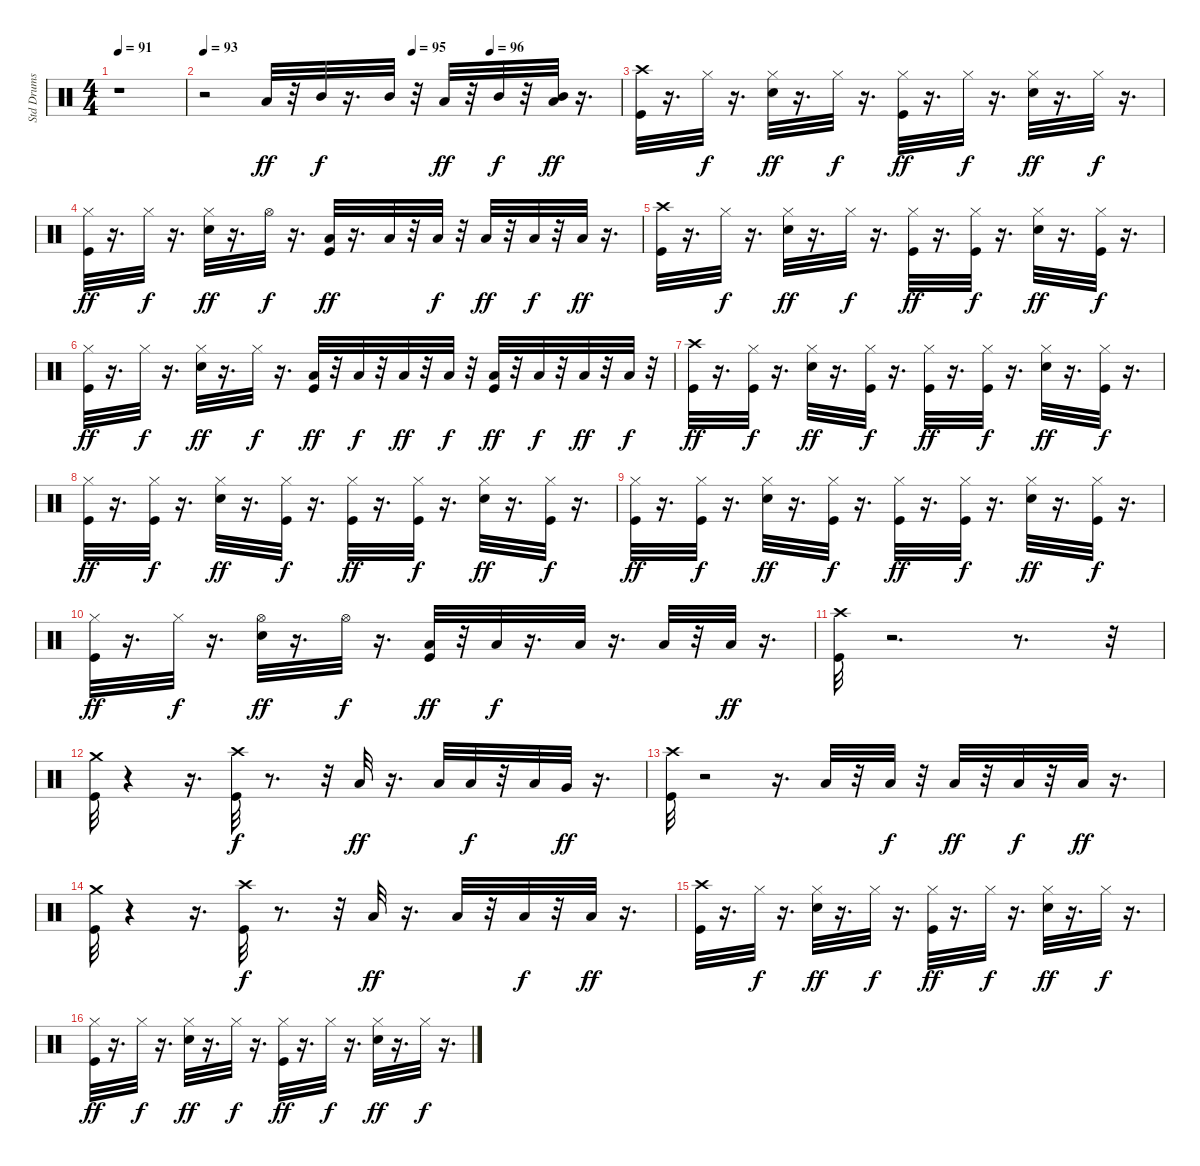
\track ("Std Drums" "Std Drums") {instrument percussion}
\staff {score}
\articulation defaults
\ts (4 4)
\tempo 91
\clef neutral
\ks c
r.1{dy ff} |
\tempo 93
\tempo (95 0.5)
\tempo (96 0.6875)
r.2 "Low Tom (hit)".32{volume 14} r.32 "Mid Tom (hit)".32{dy f} r.16{d} "Mid Tom (hit)".32 r.32 "Low Tom (hit)".32{dy ff} r.32 "Mid Tom (hit)".32{dy f} r.32 ("Mid Tom (hit)" "Low Tom (hit)").32{dy ff} r.16{d} |
("Kick (hit)" "Crash high (hit)").32 r.16{d} "Hi-Hat (closed)".32{dy f} r.16{d} ("Hi-Hat (closed)" "Snare (hit) 2").32{dy ff} r.16{d} "Hi-Hat (closed)".32{dy f} r.16{d} ("Hi-Hat (closed)" "Kick (hit)").32{dy ff} r.16{d} "Hi-Hat (closed)".32{dy f} r.16{d} ("Hi-Hat (closed)" "Snare (hit) 2").32{dy ff} r.16{d} "Hi-Hat (closed)".32{dy f} r.16{d} |
("Hi-Hat (closed)" "Kick (hit)").32{dy ff} r.16{d} "Hi-Hat (closed)".32{dy f} r.16{d} ("Hi-Hat (closed)" "Snare (hit) 2").32{dy ff} r.16{d} "Hi-Hat (open)".32{dy f} r.16{d} ("Kick (hit)" "Low Tom (hit)").32{dy ff} r.16{d} "Low Floor Tom (hit)".32 r.32 "Low Floor Tom (hit)".32{dy f} r.32 "Low Floor Tom (hit)".32{dy ff} r.32 "Low Floor Tom (hit)".32{dy f} r.32 "Low Floor Tom (hit)".32{dy ff} r.16{d} |
("Crash high (hit)" "Kick (hit)").32 r.16{d} "Hi-Hat (closed)".32{dy f} r.16{d} ("Hi-Hat (closed)" "Snare (hit) 2").32{dy ff} r.16{d} "Hi-Hat (closed)".32{dy f} r.16{d} ("Hi-Hat (closed)" "Kick (hit)").32{dy ff} r.16{d} ("Hi-Hat (closed)" "Kick (hit)").32{dy f} r.16{d} ("Hi-Hat (closed)" "Snare (hit) 2").32{dy ff} r.16{d} ("Hi-Hat (closed)" "Kick (hit)").32{dy f} r.16{d} |
("Hi-Hat (closed)" "Kick (hit)").32{dy ff} r.16{d} "Hi-Hat (closed)".32{dy f} r.16{d} ("Hi-Hat (closed)" "Snare (hit) 2").32{dy ff} r.16{d} "Hi-Hat (closed)".32{dy f} r.16{d} ("Kick (hit)" "Low Tom (hit)").32{dy ff} r.32 "Low Tom (hit)".32{dy f} r.32 "Low Tom (hit)".32{dy ff} r.32 "Low Tom (hit)".32{dy f} r.32 ("Low Tom (hit)" "Kick (hit)").32{dy ff} r.32 "Low Tom (hit)".32{dy f} r.32 "Low Tom (hit)".32{dy ff} r.32 "Low Tom (hit)".32{dy f} r.32 |
("Crash high (hit)" "Kick (hit)").32{dy ff} r.16{d} ("Hi-Hat (closed)" "Kick (hit)").32{dy f} r.16{d} ("Hi-Hat (closed)" "Snare (hit) 2").32{dy ff} r.16{d} ("Hi-Hat (closed)" "Kick (hit)").32{dy f} r.16{d} ("Hi-Hat (closed)" "Kick (hit)").32{dy ff} r.16{d} ("Hi-Hat (closed)" "Kick (hit)").32{dy f} r.16{d} ("Hi-Hat (closed)" "Snare (hit) 2").32{dy ff} r.16{d} ("Hi-Hat (closed)" "Kick (hit)").32{dy f} r.16{d} |
("Hi-Hat (closed)" "Kick (hit)").32{dy ff} r.16{d} ("Hi-Hat (closed)" "Kick (hit)").32{dy f} r.16{d} ("Hi-Hat (closed)" "Snare (hit) 2").32{dy ff} r.16{d} ("Hi-Hat (closed)" "Kick (hit)").32{dy f} r.16{d} ("Hi-Hat (closed)" "Kick (hit)").32{dy ff} r.16{d} ("Hi-Hat (closed)" "Kick (hit)").32{dy f} r.16{d} ("Hi-Hat (closed)" "Snare (hit) 2").32{dy ff} r.16{d} ("Hi-Hat (closed)" "Kick (hit)").32{dy f} r.16{d} |
("Hi-Hat (closed)" "Kick (hit)").32{dy ff} r.16{d} ("Hi-Hat (closed)" "Kick (hit)").32{dy f} r.16{d} ("Hi-Hat (closed)" "Snare (hit) 2").32{dy ff} r.16{d} ("Hi-Hat (closed)" "Kick (hit)").32{dy f} r.16{d} ("Hi-Hat (closed)" "Kick (hit)").32{dy ff} r.16{d} ("Hi-Hat (closed)" "Kick (hit)").32{dy f} r.16{d} ("Hi-Hat (closed)" "Snare (hit) 2").32{dy ff} r.16{d} ("Hi-Hat (closed)" "Kick (hit)").32{dy f} r.16{d} |
("Hi-Hat (closed)" "Kick (hit)").32{dy ff} r.16{d} "Hi-Hat (closed)".32{dy f} r.16{d} ("Hi-Hat (open)" "Snare (hit) 2").32{dy ff} r.16{d} "Hi-Hat (open)".32{dy f} r.16{d} ("Low Tom (hit)" "Kick (hit)").32{dy ff} r.32 "Low Tom (hit)".32{dy f} r.16{d} "Low Tom (hit)".32 r.16{d} "Low Floor Tom (hit)".32 r.32 "Low Floor Tom (hit)".32{dy ff} r.16{d} |
("Crash high (hit)" "Kick (hit)").32 r.2{d} r.8{d} r.32 |
("Kick (hit)" "Crash medium (hit)").32 r.4 r.16{d} ("Kick (hit)" "Crash high (hit)").32{dy f} r.8{d} r.32 "Low Tom (hit)".32{dy ff} r.16{d} "Low Floor Tom (hit)".32 "Low Floor Tom (hit)".32{dy f} r.32 "Low Floor Tom (hit)".32 "Very Low Tom (hit)".32{dy ff} r.16{d} |
("Crash high (hit)" "Kick (hit)").32 r.2 r.16{d} "Low Floor Tom (hit)".32 r.32 "Low Floor Tom (hit)".32{dy f} r.32 "Low Floor Tom (hit)".32{dy ff} r.32 "Low Floor Tom (hit)".32{dy f} r.32 "Low Floor Tom (hit)".32{dy ff} r.16{d} |
("Crash medium (hit)" "Kick (hit)").32 r.4 r.16{d} ("Crash high (hit)" "Kick (hit)").32{dy f} r.8{d} r.32 "Low Floor Tom (hit)".32{dy ff} r.16{d} "Low Floor Tom (hit)".32 r.32 "Low Floor Tom (hit)".32{dy f} r.32 "Low Floor Tom (hit)".32{dy ff} r.16{d} |
("Crash high (hit)" "Kick (hit)").32 r.16{d} "Hi-Hat (closed)".32{dy f} r.16{d} ("Hi-Hat (closed)" "Snare (hit) 2").32{dy ff} r.16{d} "Hi-Hat (closed)".32{dy f} r.16{d} ("Hi-Hat (closed)" "Kick (hit)").32{dy ff} r.16{d} "Hi-Hat (closed)".32{dy f} r.16{d} ("Hi-Hat (closed)" "Snare (hit) 2").32{dy ff} r.16{d} "Hi-Hat (closed)".32{dy f} r.16{d} |
("Hi-Hat (closed)" "Kick (hit)").32{dy ff} r.16{d} "Hi-Hat (closed)".32{dy f} r.16{d} ("Hi-Hat (closed)" "Snare (hit) 2").32{dy ff} r.16{d} "Hi-Hat (closed)".32{dy f} r.16{d} ("Hi-Hat (closed)" "Kick (hit)").32{dy ff} r.16{d} "Hi-Hat (closed)".32{dy f} r.16{d} ("Hi-Hat (closed)" "Snare (hit) 2").32{dy ff} r.16{d} "Hi-Hat (closed)".32{dy f} r.16{d}
